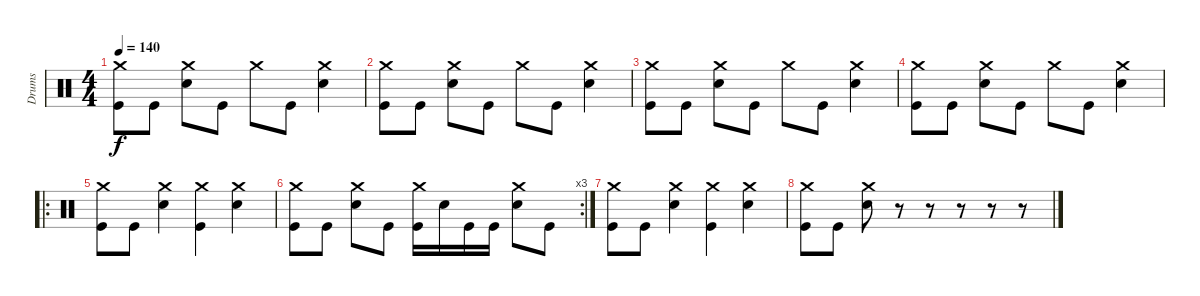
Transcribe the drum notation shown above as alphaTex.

\track ("Drums" "Drums") {instrument percussion}
\staff {score}
\articulation defaults
\ts (4 4)
\tempo 140
\clef neutral
\ks c
("Crash medium (hit)" "Kick (hit)").8{dy f} "Kick (hit)".8 ("Crash medium (hit)" "Snare (hit) 2").8 "Kick (hit)".8 "Crash medium (hit)".8 "Kick (hit)".8 ("Crash medium (hit)" "Snare (hit) 2").4 |
("Crash medium (hit)" "Kick (hit)").8 "Kick (hit)".8 ("Crash medium (hit)" "Snare (hit) 2").8 "Kick (hit)".8 "Crash medium (hit)".8 "Kick (hit)".8 ("Crash medium (hit)" "Snare (hit) 2").4 |
("Crash medium (hit)" "Kick (hit)").8 "Kick (hit)".8 ("Crash medium (hit)" "Snare (hit) 2").8 "Kick (hit)".8 "Crash medium (hit)".8 "Kick (hit)".8 ("Crash medium (hit)" "Snare (hit) 2").4 |
("Crash medium (hit)" "Kick (hit)").8 "Kick (hit)".8 ("Crash medium (hit)" "Snare (hit) 2").8 "Kick (hit)".8 "Crash medium (hit)".8 "Kick (hit)".8 ("Crash medium (hit)" "Snare (hit) 2").4 |
\ro
("Crash medium (hit)" "Kick (hit)").8 "Kick (hit)".8 ("Crash medium (hit)" "Snare (hit) 2").4 ("Crash medium (hit)" "Kick (hit)").4 ("Crash medium (hit)" "Snare (hit) 2").4 |
\rc 3
("Crash medium (hit)" "Kick (hit)").8 "Kick (hit)".8 ("Crash medium (hit)" "Snare (hit) 2").8 "Kick (hit)".8 ("Crash medium (hit)" "Kick (hit)").16 "Snare (hit) 2".16 "Kick (hit)".16 "Kick (hit)".16 ("Crash medium (hit)" "Snare (hit) 2").8 "Kick (hit)".8 |
("Crash medium (hit)" "Kick (hit)").8 "Kick (hit)".8 ("Crash medium (hit)" "Snare (hit) 2").4 ("Crash medium (hit)" "Kick (hit)").4 ("Crash medium (hit)" "Snare (hit) 2").4 |
("Crash medium (hit)" "Kick (hit)").8 "Kick (hit)".8 ("Crash medium (hit)" "Snare (hit) 2").8 r.8 r.8 r.8 r.8 r.8
